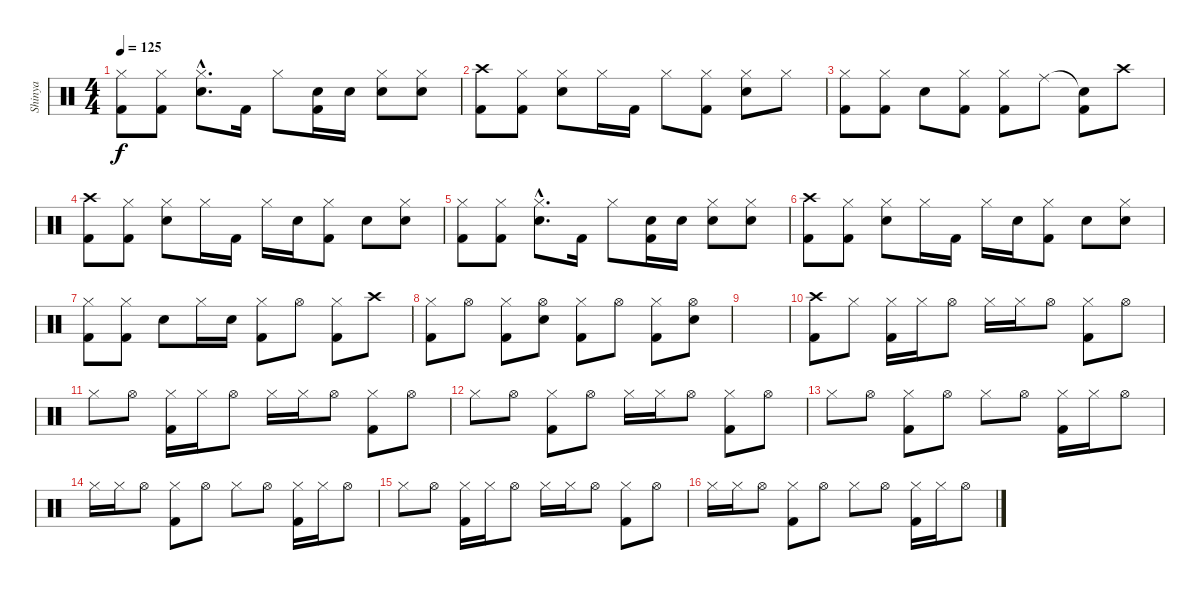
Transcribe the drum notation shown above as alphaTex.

\track ("Shinya" "Shinya") {instrument percussion}
\staff {score}
\articulation defaults
\ts (4 4)
\tempo 125
\clef neutral
\ks c
("Hi-Hat (closed)" "Kick (hit) 2").8{dy f} ("Hi-Hat (closed)" "Kick (hit) 2").8 ("Hi-Hat (closed)"{hac} "Snare (hit) 2"{hac}).8{d} "Kick (hit) 2".16 "Hi-Hat (closed)".8 ("Snare (hit) 2" "Kick (hit) 2").16 "Snare (hit) 2".16 ("Hi-Hat (closed)" "Snare (hit) 2").8 ("Hi-Hat (closed)" "Snare (hit) 2").8 |
("Kick (hit) 2" "Crash high (hit)").8 ("Hi-Hat (closed)" "Kick (hit) 2").8 ("Hi-Hat (closed)" "Snare (hit) 2").8 "Hi-Hat (closed)".16 "Kick (hit) 2".16 "Hi-Hat (closed)".8 ("Hi-Hat (closed)" "Kick (hit) 2").8 ("Hi-Hat (closed)" "Snare (hit) 2").8 "Hi-Hat (closed)".8 |
("Hi-Hat (closed)" "Kick (hit) 2").8 ("Hi-Hat (closed)" "Kick (hit) 2").8 "Snare (hit) 2".8 ("Hi-Hat (closed)" "Kick (hit) 2").8 ("Hi-Hat (closed)" "Kick (hit) 2").8 "Ride (middle)".8 ("Snare (hit)"{t} "Kick (hit) 2").8 "Crash high (hit)".8 |
("Crash high (hit)" "Kick (hit) 2").8 ("Hi-Hat (closed)" "Kick (hit) 2").8 ("Hi-Hat (closed)" "Snare (hit) 2").8 "Hi-Hat (closed)".16 "Kick (hit) 2".16 "Hi-Hat (closed)".16 "Snare (hit) 2".16 ("Hi-Hat (closed)" "Kick (hit) 2").8 "Snare (hit) 2".8 ("Hi-Hat (closed)" "Snare (hit) 2").8 |
("Hi-Hat (closed)" "Kick (hit) 2").8 ("Hi-Hat (closed)" "Kick (hit) 2").8 ("Hi-Hat (closed)"{hac} "Snare (hit) 2"{hac}).8{d} "Kick (hit) 2".16 "Hi-Hat (closed)".8 ("Snare (hit) 2" "Kick (hit) 2").16 "Snare (hit) 2".16 ("Hi-Hat (closed)" "Snare (hit) 2").8 ("Hi-Hat (closed)" "Snare (hit) 2").8 |
("Crash high (hit)" "Kick (hit) 2").8 ("Hi-Hat (closed)" "Kick (hit) 2").8 ("Hi-Hat (closed)" "Snare (hit) 2").8 "Hi-Hat (closed)".16 "Kick (hit) 2".16 "Hi-Hat (closed)".16 "Snare (hit) 2".16 ("Hi-Hat (closed)" "Kick (hit) 2").8 "Snare (hit) 2".8 ("Hi-Hat (closed)" "Snare (hit) 2").8 |
("Hi-Hat (closed)" "Kick (hit) 2").8 ("Hi-Hat (closed)" "Kick (hit) 2").8 "Snare (hit) 2".8 "Hi-Hat (closed)".16 "Snare (hit) 2".16 ("Hi-Hat (closed)" "Kick (hit) 2").8 "Hi-Hat (open)".8 ("Hi-Hat (closed)" "Kick (hit) 2").8 "Crash high (hit)".8 |
("Hi-Hat (closed)" "Kick (hit) 2").8 "Hi-Hat (open)".8 ("Hi-Hat (closed)" "Kick (hit) 2").8 ("Hi-Hat (open)" "Snare (hit) 2").8 ("Hi-Hat (closed)" "Kick (hit) 2").8 "Hi-Hat (open)".8 ("Hi-Hat (closed)" "Kick (hit) 2").8 ("Hi-Hat (open)" "Snare (hit) 2").8 |
|
("Crash high (hit)" "Kick (hit) 2").8 "Hi-Hat (closed)".8 ("Hi-Hat (closed)" "Kick (hit) 2").16 "Hi-Hat (closed)".16 "Hi-Hat (open)".8 "Hi-Hat (closed)".16 "Hi-Hat (closed)".16 "Hi-Hat (open)".8 ("Hi-Hat (closed)" "Kick (hit) 2").8 "Hi-Hat (open)".8 |
"Hi-Hat (closed)".8 "Hi-Hat (open)".8 ("Hi-Hat (closed)" "Kick (hit) 2").16 "Hi-Hat (closed)".16 "Hi-Hat (open)".8 "Hi-Hat (closed)".16 "Hi-Hat (closed)".16 "Hi-Hat (open)".8 ("Hi-Hat (closed)" "Kick (hit) 2").8 "Hi-Hat (open)".8 |
"Hi-Hat (closed)".8 "Hi-Hat (open)".8 ("Hi-Hat (closed)" "Kick (hit) 2").8 "Hi-Hat (open)".8 "Hi-Hat (closed)".16 "Hi-Hat (closed)".16 "Hi-Hat (open)".8 ("Hi-Hat (closed)" "Kick (hit) 2").8 "Hi-Hat (open)".8 |
"Hi-Hat (closed)".8 "Hi-Hat (open)".8 ("Hi-Hat (closed)" "Kick (hit) 2").8 "Hi-Hat (open)".8 "Hi-Hat (closed)".8 "Hi-Hat (open)".8 ("Hi-Hat (closed)" "Kick (hit) 2").16 "Hi-Hat (closed)".16 "Hi-Hat (open)".8 |
"Hi-Hat (closed)".16 "Hi-Hat (closed)".16 "Hi-Hat (open)".8 ("Hi-Hat (closed)" "Kick (hit) 2").8 "Hi-Hat (open)".8 "Hi-Hat (closed)".8 "Hi-Hat (open)".8 ("Hi-Hat (closed)" "Kick (hit) 2").16 "Hi-Hat (closed)".16 "Hi-Hat (open)".8 |
"Hi-Hat (closed)".8 "Hi-Hat (open)".8 ("Hi-Hat (closed)" "Kick (hit) 2").16 "Hi-Hat (closed)".16 "Hi-Hat (open)".8 "Hi-Hat (closed)".16 "Hi-Hat (closed)".16 "Hi-Hat (open)".8 ("Hi-Hat (closed)" "Kick (hit) 2").8 "Hi-Hat (open)".8 |
"Hi-Hat (closed)".16 "Hi-Hat (closed)".16 "Hi-Hat (open)".8 ("Hi-Hat (closed)" "Kick (hit) 2").8 "Hi-Hat (open)".8 "Hi-Hat (closed)".8 "Hi-Hat (open)".8 ("Hi-Hat (closed)" "Kick (hit) 2").16 "Hi-Hat (closed)".16 "Hi-Hat (open)".8
